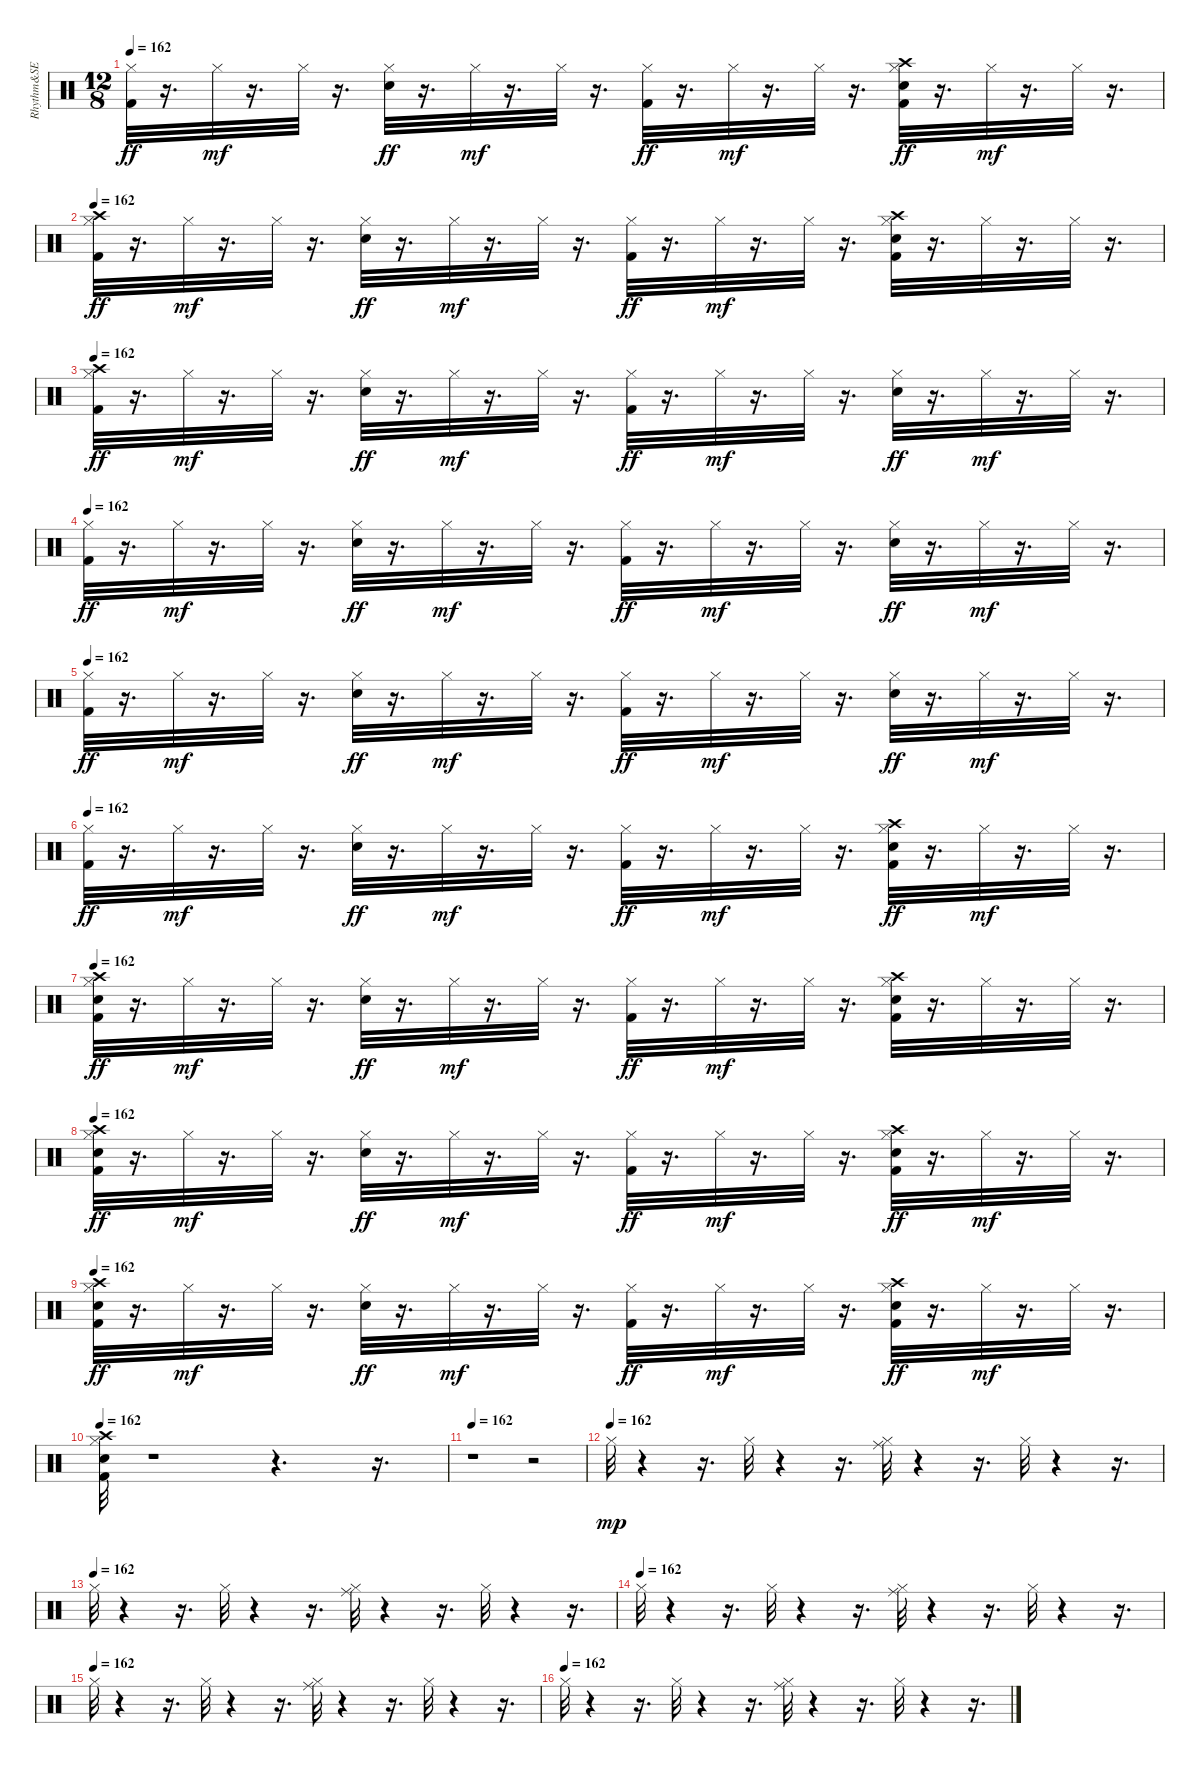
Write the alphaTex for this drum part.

\track ("Rhythm&SE" "Rhythm&SE") {instrument percussion}
\staff {score}
\articulation defaults
\ts (12 8)
\tempo 162
\clef neutral
\ks c
("Kick (hit) 2" "Hi-Hat (closed)").32{dy ff volume 14 balance 8} r.16{d} "Hi-Hat (closed)".32{dy mf} r.16{d} "Hi-Hat (closed)".32{volume 14} r.16{d} ("Snare (hit) 2" "Hi-Hat (closed)").32{dy ff} r.16{d} "Hi-Hat (closed)".32{dy mf} r.16{d} "Hi-Hat (closed)".32 r.16{d} ("Kick (hit) 2" "Hi-Hat (closed)").32{dy ff} r.16{d} "Hi-Hat (closed)".32{dy mf} r.16{d} "Hi-Hat (closed)".32 r.16{d} ("Snare (hit) 2" "Hi-Hat (closed)" "Kick (hit) 2" "Crash high (hit)").32{dy ff} r.16{d} "Hi-Hat (closed)".32{dy mf} r.16{d} "Hi-Hat (closed)".32 r.16{d} |
\tempo 162
("Hi-Hat (closed)" "Kick (hit) 2" "Crash high (hit)").32{dy ff volume 14 balance 8} r.16{d} "Hi-Hat (closed)".32{dy mf} r.16{d} "Hi-Hat (closed)".32{volume 14} r.16{d} ("Snare (hit) 2" "Hi-Hat (closed)").32{dy ff} r.16{d} "Hi-Hat (closed)".32{dy mf} r.16{d} "Hi-Hat (closed)".32 r.16{d} ("Kick (hit) 2" "Hi-Hat (closed)").32{dy ff} r.16{d} "Hi-Hat (closed)".32{dy mf} r.16{d} "Hi-Hat (closed)".32 r.16{d} ("Snare (hit) 2" "Hi-Hat (closed)" "Kick (hit) 2" "Crash high (hit)").32 r.16{d} "Hi-Hat (closed)".32 r.16{d} "Hi-Hat (closed)".32 r.16{d} |
\tempo 162
("Hi-Hat (closed)" "Kick (hit) 2" "Crash high (hit)").32{dy ff volume 14 balance 8} r.16{d} "Hi-Hat (closed)".32{dy mf} r.16{d} "Hi-Hat (closed)".32{volume 14} r.16{d} ("Snare (hit) 2" "Hi-Hat (closed)").32{dy ff} r.16{d} "Hi-Hat (closed)".32{dy mf} r.16{d} "Hi-Hat (closed)".32 r.16{d} ("Kick (hit) 2" "Hi-Hat (closed)").32{dy ff} r.16{d} "Hi-Hat (closed)".32{dy mf} r.16{d} "Hi-Hat (closed)".32 r.16{d} ("Snare (hit) 2" "Hi-Hat (closed)").32{dy ff} r.16{d} "Hi-Hat (closed)".32{dy mf} r.16{d} "Hi-Hat (closed)".32 r.16{d} |
\tempo 162
("Kick (hit) 2" "Hi-Hat (closed)").32{dy ff volume 14 balance 8} r.16{d} "Hi-Hat (closed)".32{dy mf} r.16{d} "Hi-Hat (closed)".32{volume 14} r.16{d} ("Snare (hit) 2" "Hi-Hat (closed)").32{dy ff} r.16{d} "Hi-Hat (closed)".32{dy mf} r.16{d} "Hi-Hat (closed)".32 r.16{d} ("Kick (hit) 2" "Hi-Hat (closed)").32{dy ff} r.16{d} "Hi-Hat (closed)".32{dy mf} r.16{d} "Hi-Hat (closed)".32 r.16{d} ("Snare (hit) 2" "Hi-Hat (closed)").32{dy ff} r.16{d} "Hi-Hat (closed)".32{dy mf} r.16{d} "Hi-Hat (closed)".32 r.16{d} |
\tempo 162
("Kick (hit) 2" "Hi-Hat (closed)").32{dy ff volume 14 balance 8} r.16{d} "Hi-Hat (closed)".32{dy mf} r.16{d} "Hi-Hat (closed)".32{volume 14} r.16{d} ("Snare (hit) 2" "Hi-Hat (closed)").32{dy ff} r.16{d} "Hi-Hat (closed)".32{dy mf} r.16{d} "Hi-Hat (closed)".32 r.16{d} ("Kick (hit) 2" "Hi-Hat (closed)").32{dy ff} r.16{d} "Hi-Hat (closed)".32{dy mf} r.16{d} "Hi-Hat (closed)".32 r.16{d} ("Snare (hit) 2" "Hi-Hat (closed)").32{dy ff} r.16{d} "Hi-Hat (closed)".32{dy mf} r.16{d} "Hi-Hat (closed)".32 r.16{d} |
\tempo 162
("Kick (hit) 2" "Hi-Hat (closed)").32{dy ff volume 14 balance 8} r.16{d} "Hi-Hat (closed)".32{dy mf} r.16{d} "Hi-Hat (closed)".32{volume 14} r.16{d} ("Snare (hit) 2" "Hi-Hat (closed)").32{dy ff} r.16{d} "Hi-Hat (closed)".32{dy mf} r.16{d} "Hi-Hat (closed)".32 r.16{d} ("Kick (hit) 2" "Hi-Hat (closed)").32{dy ff} r.16{d} "Hi-Hat (closed)".32{dy mf} r.16{d} "Hi-Hat (closed)".32 r.16{d} ("Snare (hit) 2" "Kick (hit) 2" "Hi-Hat (closed)" "Crash high (hit)").32{dy ff} r.16{d} "Hi-Hat (closed)".32{dy mf} r.16{d} "Hi-Hat (closed)".32 r.16{d} |
\tempo 162
("Kick (hit) 2" "Hi-Hat (closed)" "Snare (hit) 2" "Crash high (hit)").32{dy ff volume 14 balance 8} r.16{d} "Hi-Hat (closed)".32{dy mf} r.16{d} "Hi-Hat (closed)".32{volume 14} r.16{d} ("Snare (hit) 2" "Hi-Hat (closed)").32{dy ff} r.16{d} "Hi-Hat (closed)".32{dy mf} r.16{d} "Hi-Hat (closed)".32 r.16{d} ("Kick (hit) 2" "Hi-Hat (closed)").32{dy ff} r.16{d} "Hi-Hat (closed)".32{dy mf} r.16{d} "Hi-Hat (closed)".32 r.16{d} ("Snare (hit) 2" "Hi-Hat (closed)" "Kick (hit) 2" "Crash high (hit)").32 r.16{d} "Hi-Hat (closed)".32 r.16{d} "Hi-Hat (closed)".32 r.16{d} |
\tempo 162
("Kick (hit) 2" "Hi-Hat (closed)" "Snare (hit) 2" "Crash high (hit)").32{dy ff volume 14 balance 8} r.16{d} "Hi-Hat (closed)".32{dy mf} r.16{d} "Hi-Hat (closed)".32{volume 14} r.16{d} ("Snare (hit) 2" "Hi-Hat (closed)").32{dy ff} r.16{d} "Hi-Hat (closed)".32{dy mf} r.16{d} "Hi-Hat (closed)".32 r.16{d} ("Kick (hit) 2" "Hi-Hat (closed)").32{dy ff} r.16{d} "Hi-Hat (closed)".32{dy mf} r.16{d} "Hi-Hat (closed)".32 r.16{d} ("Snare (hit) 2" "Hi-Hat (closed)" "Kick (hit) 2" "Crash high (hit)").32{dy ff} r.16{d} "Hi-Hat (closed)".32{dy mf} r.16{d} "Hi-Hat (closed)".32 r.16{d} |
\tempo 162
("Kick (hit) 2" "Hi-Hat (closed)" "Snare (hit) 2" "Crash high (hit)").32{dy ff volume 14 balance 8} r.16{d} "Hi-Hat (closed)".32{dy mf} r.16{d} "Hi-Hat (closed)".32{volume 14} r.16{d} ("Snare (hit) 2" "Hi-Hat (closed)").32{dy ff} r.16{d} "Hi-Hat (closed)".32{dy mf} r.16{d} "Hi-Hat (closed)".32 r.16{d} ("Kick (hit) 2" "Hi-Hat (closed)").32{dy ff} r.16{d} "Hi-Hat (closed)".32{dy mf} r.16{d} "Hi-Hat (closed)".32 r.16{d} ("Snare (hit) 2" "Hi-Hat (closed)" "Kick (hit) 2" "Crash high (hit)").32{dy ff} r.16{d} "Hi-Hat (closed)".32{dy mf} r.16{d} "Hi-Hat (closed)".32 r.16{d} |
\tempo 162
("Kick (hit) 2" "Hi-Hat (closed)" "Snare (hit) 2" "Crash high (hit)").32{balance 8} r.1 r.4{d} r.16{d} |
\tempo 162
r.1 r.2 |
\tempo (162)
"Hi-Hat (closed)".32{dy mp} r.4 r.16{d} "Hi-Hat (closed)".32 r.4 r.16{d} ("Hi-Hat (closed)" "Ride (middle)").32 r.4 r.16{d} "Hi-Hat (closed)".32 r.4 r.16{d} |
\tempo (162)
"Hi-Hat (closed)".32 r.4 r.16{d} "Hi-Hat (closed)".32 r.4 r.16{d} ("Hi-Hat (closed)" "Ride (middle)").32 r.4 r.16{d} "Hi-Hat (closed)".32 r.4 r.16{d} |
\tempo (162)
"Hi-Hat (closed)".32 r.4 r.16{d} "Hi-Hat (closed)".32 r.4 r.16{d} ("Hi-Hat (closed)" "Ride (middle)").32 r.4 r.16{d} "Hi-Hat (closed)".32 r.4 r.16{d} |
\tempo (162)
"Hi-Hat (closed)".32 r.4 r.16{d} "Hi-Hat (closed)".32 r.4 r.16{d} ("Hi-Hat (closed)" "Ride (middle)").32 r.4 r.16{d} "Hi-Hat (closed)".32 r.4 r.16{d} |
\tempo (162)
"Hi-Hat (closed)".32 r.4 r.16{d} "Hi-Hat (closed)".32 r.4 r.16{d} ("Hi-Hat (closed)" "Ride (middle)").32 r.4 r.16{d} "Hi-Hat (closed)".32 r.4 r.16{d}
